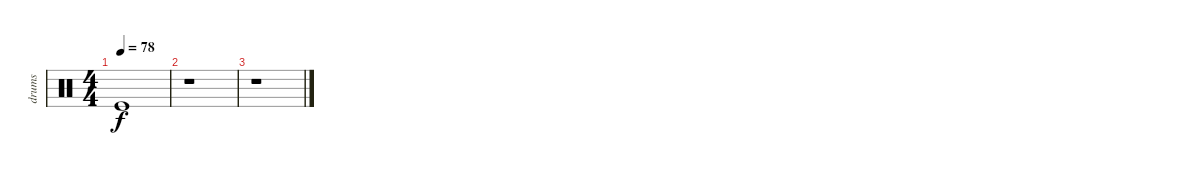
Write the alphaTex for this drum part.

\track ("drums" "drums") {instrument percussion}
\staff {score}
\articulation defaults
\ts (4 4)
\tempo 78
\clef neutral
\ks c "Kick (hit)".1{dy f}
|
r.1 |
r.1
